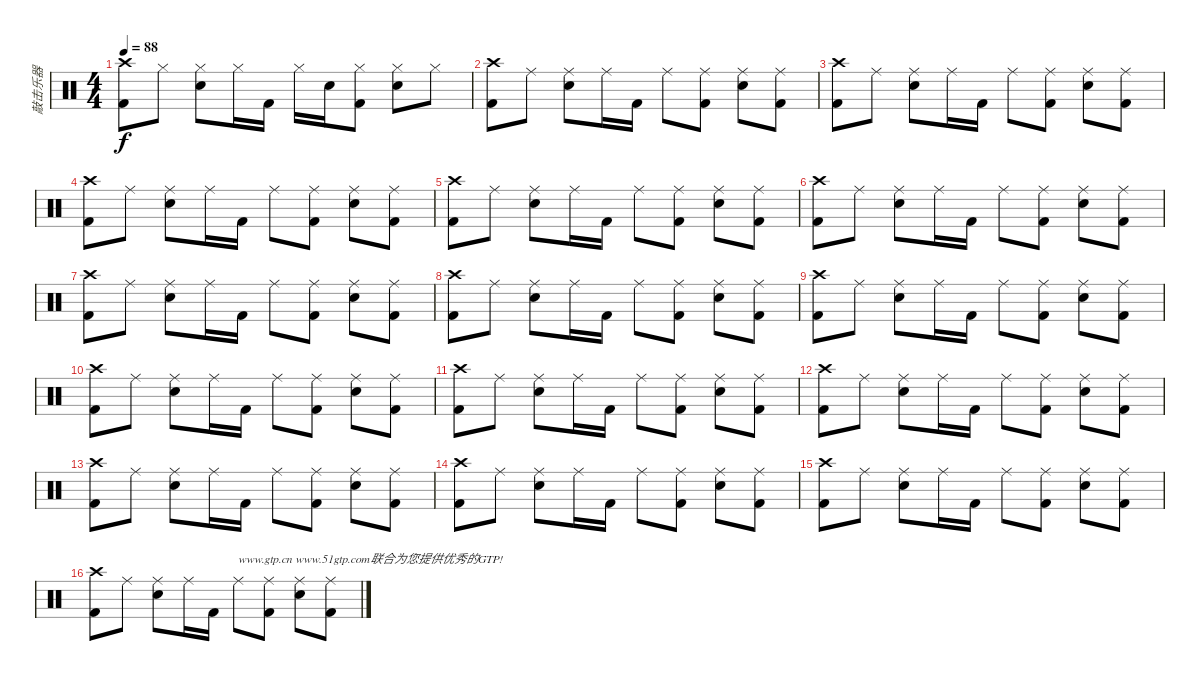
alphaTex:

\track ("敲击乐器" "敲击乐器") {instrument percussion}
\staff {score}
\articulation defaults
\ts (4 4)
\tempo 88
\clef neutral
\ks c
("Crash high (hit)" "Kick (hit) 2").8{dy f} "Hi-Hat (closed)".8 ("Hi-Hat (closed)" "Electric Snare (hit)").8 "Hi-Hat (closed)".16 "Kick (hit) 2".16 "Hi-Hat (closed)".16 "Electric Snare (hit)".16 ("Hi-Hat (closed)" "Kick (hit) 2").8 ("Hi-Hat (closed)" "Electric Snare (hit)").8 "Hi-Hat (closed)".8 |
("Crash high (hit)" "Kick (hit) 2").8 "Ride (middle)".8 ("Ride (middle)" "Electric Snare (hit)").8 "Ride (middle)".16 "Kick (hit) 2".16 "Ride (middle)".8 ("Ride (middle)" "Kick (hit) 2").8 ("Ride (middle)" "Electric Snare (hit)").8 ("Ride (middle)" "Kick (hit) 2").8 |
("Crash high (hit)" "Kick (hit) 2").8 "Ride (middle)".8 ("Ride (middle)" "Electric Snare (hit)").8 "Ride (middle)".16 "Kick (hit) 2".16 "Ride (middle)".8 ("Ride (middle)" "Kick (hit) 2").8 ("Ride (middle)" "Electric Snare (hit)").8 ("Ride (middle)" "Kick (hit) 2").8 |
("Crash high (hit)" "Kick (hit) 2").8 "Ride (middle)".8 ("Ride (middle)" "Electric Snare (hit)").8 "Ride (middle)".16 "Kick (hit) 2".16 "Ride (middle)".8 ("Ride (middle)" "Kick (hit) 2").8 ("Ride (middle)" "Electric Snare (hit)").8 ("Ride (middle)" "Kick (hit) 2").8 |
("Crash high (hit)" "Kick (hit) 2").8 "Ride (middle)".8 ("Ride (middle)" "Electric Snare (hit)").8 "Ride (middle)".16 "Kick (hit) 2".16 "Ride (middle)".8 ("Ride (middle)" "Kick (hit) 2").8 ("Ride (middle)" "Electric Snare (hit)").8 ("Ride (middle)" "Kick (hit) 2").8 |
("Crash high (hit)" "Kick (hit) 2").8 "Ride (middle)".8 ("Ride (middle)" "Electric Snare (hit)").8 "Ride (middle)".16 "Kick (hit) 2".16 "Ride (middle)".8 ("Ride (middle)" "Kick (hit) 2").8 ("Ride (middle)" "Electric Snare (hit)").8 ("Ride (middle)" "Kick (hit) 2").8 |
("Crash high (hit)" "Kick (hit) 2").8 "Ride (middle)".8 ("Ride (middle)" "Electric Snare (hit)").8 "Ride (middle)".16 "Kick (hit) 2".16 "Ride (middle)".8 ("Ride (middle)" "Kick (hit) 2").8 ("Ride (middle)" "Electric Snare (hit)").8 ("Ride (middle)" "Kick (hit) 2").8 |
("Crash high (hit)" "Kick (hit) 2").8 "Ride (middle)".8 ("Ride (middle)" "Electric Snare (hit)").8 "Ride (middle)".16 "Kick (hit) 2".16 "Ride (middle)".8 ("Ride (middle)" "Kick (hit) 2").8 ("Ride (middle)" "Electric Snare (hit)").8 ("Ride (middle)" "Kick (hit) 2").8 |
("Crash high (hit)" "Kick (hit) 2").8 "Ride (middle)".8 ("Ride (middle)" "Electric Snare (hit)").8 "Ride (middle)".16 "Kick (hit) 2".16 "Ride (middle)".8 ("Ride (middle)" "Kick (hit) 2").8 ("Ride (middle)" "Electric Snare (hit)").8 ("Ride (middle)" "Kick (hit) 2").8 |
("Crash high (hit)" "Kick (hit) 2").8 "Ride (middle)".8 ("Ride (middle)" "Electric Snare (hit)").8 "Ride (middle)".16 "Kick (hit) 2".16 "Ride (middle)".8 ("Ride (middle)" "Kick (hit) 2").8 ("Ride (middle)" "Electric Snare (hit)").8 ("Ride (middle)" "Kick (hit) 2").8 |
("Crash high (hit)" "Kick (hit) 2").8 "Ride (middle)".8 ("Ride (middle)" "Electric Snare (hit)").8 "Ride (middle)".16 "Kick (hit) 2".16 "Ride (middle)".8 ("Ride (middle)" "Kick (hit) 2").8 ("Ride (middle)" "Electric Snare (hit)").8 ("Ride (middle)" "Kick (hit) 2").8 |
("Crash high (hit)" "Kick (hit) 2").8 "Ride (middle)".8 ("Ride (middle)" "Electric Snare (hit)").8 "Ride (middle)".16 "Kick (hit) 2".16 "Ride (middle)".8 ("Ride (middle)" "Kick (hit) 2").8 ("Ride (middle)" "Electric Snare (hit)").8 ("Ride (middle)" "Kick (hit) 2").8 |
("Crash high (hit)" "Kick (hit) 2").8 "Ride (middle)".8 ("Ride (middle)" "Electric Snare (hit)").8 "Ride (middle)".16 "Kick (hit) 2".16 "Ride (middle)".8 ("Ride (middle)" "Kick (hit) 2").8 ("Ride (middle)" "Electric Snare (hit)").8 ("Ride (middle)" "Kick (hit) 2").8 |
("Crash high (hit)" "Kick (hit) 2").8 "Ride (middle)".8 ("Ride (middle)" "Electric Snare (hit)").8 "Ride (middle)".16 "Kick (hit) 2".16 "Ride (middle)".8 ("Ride (middle)" "Kick (hit) 2").8 ("Ride (middle)" "Electric Snare (hit)").8 ("Ride (middle)" "Kick (hit) 2").8 |
("Crash high (hit)" "Kick (hit) 2").8 "Ride (middle)".8 ("Ride (middle)" "Electric Snare (hit)").8 "Ride (middle)".16 "Kick (hit) 2".16 "Ride (middle)".8 ("Ride (middle)" "Kick (hit) 2").8 ("Ride (middle)" "Electric Snare (hit)").8 ("Ride (middle)" "Kick (hit) 2").8 |
("Crash high (hit)" "Kick (hit) 2").8 "Ride (middle)".8 ("Ride (middle)" "Electric Snare (hit)").8 "Ride (middle)".16 "Kick (hit) 2".16 "Ride (middle)".8{txt "www.gtp.cn www.51gtp.com联合为您提供优秀的GTP!"} ("Ride (middle)" "Kick (hit) 2").8 ("Ride (middle)" "Electric Snare (hit)").8 ("Ride (middle)" "Kick (hit) 2").8
